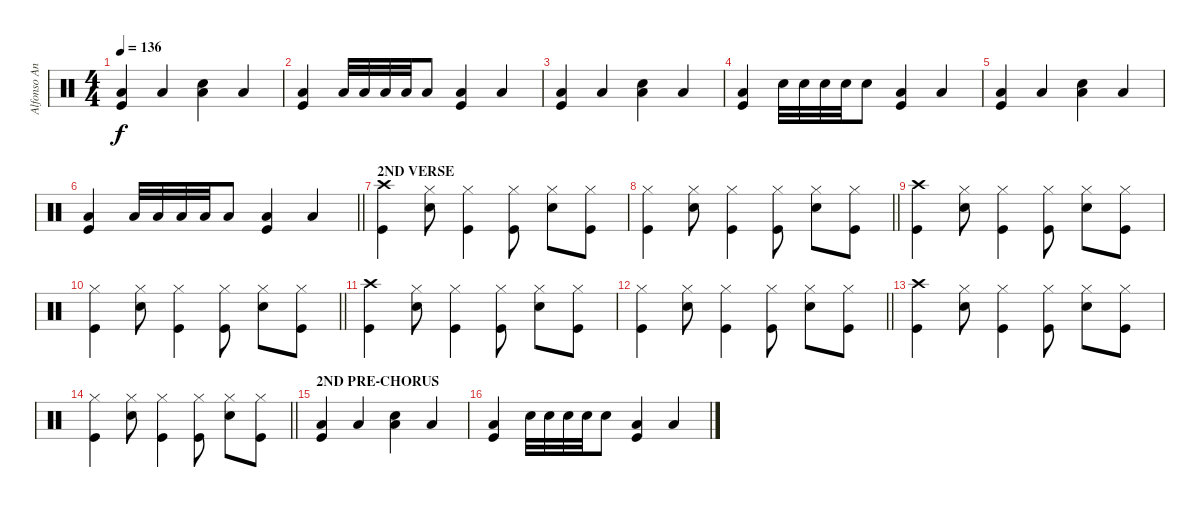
\track ("Alfonso Andre" "Alfonso An") {instrument percussion}
\staff {score}
\articulation defaults
\ts (4 4)
\tempo 136
\clef neutral
\ks c
("Kick (hit)" "Low Floor Tom (hit)").4{dy f} "Low Floor Tom (hit)".4 ("Snare (hit) 2" "Low Floor Tom (hit)").4 "Low Floor Tom (hit)".4 |
("Kick (hit)" "Low Floor Tom (hit)").4 "Low Tom (hit)".32 "Low Tom (hit)".32 "Low Tom (hit)".32 "Low Tom (hit)".32 "Low Tom (hit)".8 ("Kick (hit)" "Low Floor Tom (hit)").4 "Low Floor Tom (hit)".4 |
("Kick (hit)" "Low Floor Tom (hit)").4 "Low Floor Tom (hit)".4 ("Snare (hit) 2" "Low Floor Tom (hit)").4 "Low Floor Tom (hit)".4 |
("Kick (hit)" "Low Floor Tom (hit)").4 "Snare (hit) 2".32 "Snare (hit) 2".32 "Snare (hit) 2".32 "Snare (hit) 2".32 "Snare (hit) 2".8 ("Kick (hit)" "Low Floor Tom (hit)").4 "Low Floor Tom (hit)".4 |
("Kick (hit)" "Low Floor Tom (hit)").4 "Low Floor Tom (hit)".4 ("Snare (hit) 2" "Low Floor Tom (hit)").4 "Low Floor Tom (hit)".4 |
\barLineRight lightlight
("Kick (hit)" "Low Floor Tom (hit)").4 "Low Tom (hit)".32 "Low Tom (hit)".32 "Low Tom (hit)".32 "Low Tom (hit)".32 "Low Tom (hit)".8 ("Kick (hit)" "Low Floor Tom (hit)").4 "Low Floor Tom (hit)".4 |
\section ("" "2ND VERSE")
("Kick (hit)" "Crash high (hit)").4 ("Snare (hit) 2" "Hi-Hat (closed)").8 ("Kick (hit)" "Hi-Hat (closed)").4 ("Kick (hit)" "Hi-Hat (closed)").8 ("Snare (hit) 2" "Hi-Hat (closed)").8 ("Kick (hit)" "Hi-Hat (closed)").8 |
\barLineRight lightlight
("Kick (hit)" "Hi-Hat (closed)").4 ("Snare (hit) 2" "Hi-Hat (closed)").8 ("Kick (hit)" "Hi-Hat (closed)").4 ("Kick (hit)" "Hi-Hat (closed)").8 ("Snare (hit) 2" "Hi-Hat (closed)").8 ("Kick (hit)" "Hi-Hat (closed)").8 |
("Kick (hit)" "Crash high (hit)").4 ("Snare (hit) 2" "Hi-Hat (closed)").8 ("Kick (hit)" "Hi-Hat (closed)").4 ("Kick (hit)" "Hi-Hat (closed)").8 ("Snare (hit) 2" "Hi-Hat (closed)").8 ("Kick (hit)" "Hi-Hat (closed)").8 |
\barLineRight lightlight
("Kick (hit)" "Hi-Hat (closed)").4 ("Snare (hit) 2" "Hi-Hat (closed)").8 ("Kick (hit)" "Hi-Hat (closed)").4 ("Kick (hit)" "Hi-Hat (closed)").8 ("Snare (hit) 2" "Hi-Hat (closed)").8 ("Kick (hit)" "Hi-Hat (closed)").8 |
("Kick (hit)" "Crash high (hit)").4 ("Snare (hit) 2" "Hi-Hat (closed)").8 ("Kick (hit)" "Hi-Hat (closed)").4 ("Kick (hit)" "Hi-Hat (closed)").8 ("Snare (hit) 2" "Hi-Hat (closed)").8 ("Kick (hit)" "Hi-Hat (closed)").8 |
\barLineRight lightlight
("Kick (hit)" "Hi-Hat (closed)").4 ("Snare (hit) 2" "Hi-Hat (closed)").8 ("Kick (hit)" "Hi-Hat (closed)").4 ("Kick (hit)" "Hi-Hat (closed)").8 ("Snare (hit) 2" "Hi-Hat (closed)").8 ("Kick (hit)" "Hi-Hat (closed)").8 |
("Kick (hit)" "Crash high (hit)").4 ("Snare (hit) 2" "Hi-Hat (closed)").8 ("Kick (hit)" "Hi-Hat (closed)").4 ("Kick (hit)" "Hi-Hat (closed)").8 ("Snare (hit) 2" "Hi-Hat (closed)").8 ("Kick (hit)" "Hi-Hat (closed)").8 |
\barLineRight lightlight
("Kick (hit)" "Hi-Hat (closed)").4 ("Snare (hit) 2" "Hi-Hat (closed)").8 ("Kick (hit)" "Hi-Hat (closed)").4 ("Kick (hit)" "Hi-Hat (closed)").8 ("Snare (hit) 2" "Hi-Hat (closed)").8 ("Kick (hit)" "Hi-Hat (closed)").8 |
\section ("" "2ND PRE-CHORUS")
("Kick (hit)" "Low Floor Tom (hit)").4 "Low Floor Tom (hit)".4 ("Snare (hit) 2" "Low Floor Tom (hit)").4 "Low Floor Tom (hit)".4 |
("Kick (hit)" "Low Floor Tom (hit)").4 "Snare (hit) 2".32 "Snare (hit) 2".32 "Snare (hit) 2".32 "Snare (hit) 2".32 "Snare (hit) 2".8 ("Kick (hit)" "Low Floor Tom (hit)").4 "Low Floor Tom (hit)".4
